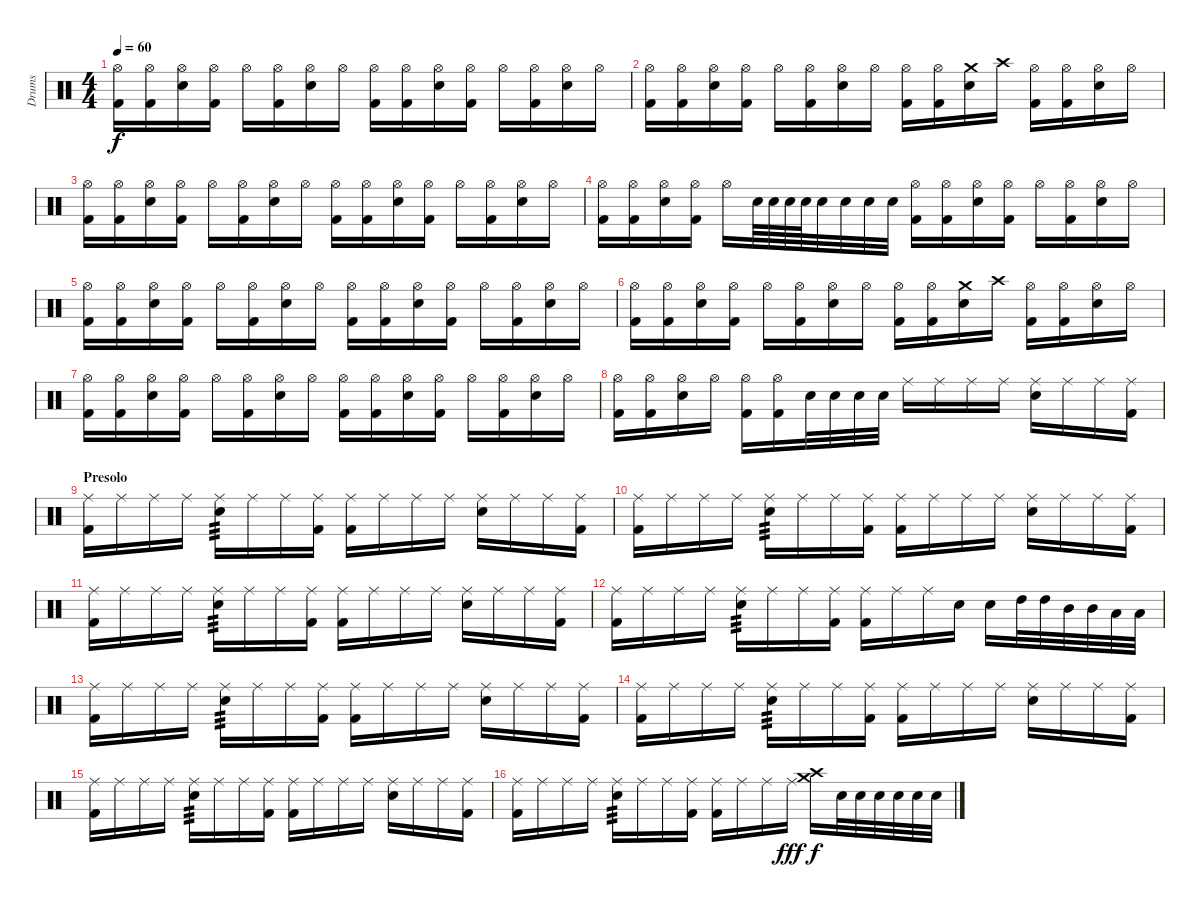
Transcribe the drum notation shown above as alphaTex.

\track ("Drums" "Drums") {instrument percussion}
\staff {score}
\articulation defaults
\ts (4 4)
\tempo 60
\clef neutral
\ks c
("Hi-Hat (open)" "Kick (hit) 2").16{dy f} ("Hi-Hat (open)" "Kick (hit) 2").16 ("Hi-Hat (open)" "Electric Snare (hit)").16 ("Hi-Hat (open)" "Kick (hit) 2").16 "Hi-Hat (open)".16 ("Hi-Hat (open)" "Kick (hit) 2").16 ("Hi-Hat (open)" "Electric Snare (hit)").16 "Hi-Hat (open)".16 ("Hi-Hat (open)" "Kick (hit) 2").16 ("Hi-Hat (open)" "Kick (hit) 2").16 ("Hi-Hat (open)" "Electric Snare (hit)").16 ("Hi-Hat (open)" "Kick (hit) 2").16 "Hi-Hat (open)".16 ("Hi-Hat (open)" "Kick (hit) 2").16 ("Hi-Hat (open)" "Electric Snare (hit)").16 "Hi-Hat (open)".16 |
("Hi-Hat (open)" "Kick (hit) 2").16 ("Hi-Hat (open)" "Kick (hit) 2").16 ("Hi-Hat (open)" "Electric Snare (hit)").16 ("Hi-Hat (open)" "Kick (hit) 2").16 "Hi-Hat (open)".16 ("Hi-Hat (open)" "Kick (hit) 2").16 ("Hi-Hat (open)" "Electric Snare (hit)").16 "Hi-Hat (open)".16 ("Hi-Hat (open)" "Kick (hit) 2").16 ("Hi-Hat (open)" "Kick (hit) 2").16 ("Crash medium (hit)" "Electric Snare (hit)").16 "Crash high (hit)".16 ("Hi-Hat (open)" "Kick (hit) 2").16 ("Hi-Hat (open)" "Kick (hit) 2").16 ("Hi-Hat (open)" "Electric Snare (hit)").16 "Hi-Hat (open)".16 |
("Hi-Hat (open)" "Kick (hit) 2").16 ("Hi-Hat (open)" "Kick (hit) 2").16 ("Hi-Hat (open)" "Electric Snare (hit)").16 ("Hi-Hat (open)" "Kick (hit) 2").16 "Hi-Hat (open)".16 ("Hi-Hat (open)" "Kick (hit) 2").16 ("Hi-Hat (open)" "Electric Snare (hit)").16 "Hi-Hat (open)".16 ("Hi-Hat (open)" "Kick (hit) 2").16 ("Hi-Hat (open)" "Kick (hit) 2").16 ("Hi-Hat (open)" "Electric Snare (hit)").16 ("Hi-Hat (open)" "Kick (hit) 2").16 "Hi-Hat (open)".16 ("Hi-Hat (open)" "Kick (hit) 2").16 ("Hi-Hat (open)" "Electric Snare (hit)").16 "Hi-Hat (open)".16 |
("Hi-Hat (open)" "Kick (hit) 2").16 ("Hi-Hat (open)" "Kick (hit) 2").16 ("Hi-Hat (open)" "Electric Snare (hit)").16 ("Hi-Hat (open)" "Kick (hit) 2").16 "Hi-Hat (open)".16 "Electric Snare (hit)".64 "Electric Snare (hit)".64 "Electric Snare (hit)".64 "Electric Snare (hit)".64 "Electric Snare (hit)".32 "Electric Snare (hit)".32 "Electric Snare (hit)".32 "Electric Snare (hit)".32 ("Hi-Hat (open)" "Kick (hit) 2").16 ("Hi-Hat (open)" "Kick (hit) 2").16 ("Hi-Hat (open)" "Electric Snare (hit)").16 ("Hi-Hat (open)" "Kick (hit) 2").16 "Hi-Hat (open)".16 ("Hi-Hat (open)" "Kick (hit) 2").16 ("Hi-Hat (open)" "Electric Snare (hit)").16 "Hi-Hat (open)".16 |
("Hi-Hat (open)" "Kick (hit) 2").16 ("Hi-Hat (open)" "Kick (hit) 2").16 ("Hi-Hat (open)" "Electric Snare (hit)").16 ("Hi-Hat (open)" "Kick (hit) 2").16 "Hi-Hat (open)".16 ("Hi-Hat (open)" "Kick (hit) 2").16 ("Hi-Hat (open)" "Electric Snare (hit)").16 "Hi-Hat (open)".16 ("Hi-Hat (open)" "Kick (hit) 2").16 ("Hi-Hat (open)" "Kick (hit) 2").16 ("Hi-Hat (open)" "Electric Snare (hit)").16 ("Hi-Hat (open)" "Kick (hit) 2").16 "Hi-Hat (open)".16 ("Hi-Hat (open)" "Kick (hit) 2").16 ("Hi-Hat (open)" "Electric Snare (hit)").16 "Hi-Hat (open)".16 |
("Hi-Hat (open)" "Kick (hit) 2").16 ("Hi-Hat (open)" "Kick (hit) 2").16 ("Hi-Hat (open)" "Electric Snare (hit)").16 ("Hi-Hat (open)" "Kick (hit) 2").16 "Hi-Hat (open)".16 ("Hi-Hat (open)" "Kick (hit) 2").16 ("Hi-Hat (open)" "Electric Snare (hit)").16 "Hi-Hat (open)".16 ("Hi-Hat (open)" "Kick (hit) 2").16 ("Hi-Hat (open)" "Kick (hit) 2").16 ("Crash medium (hit)" "Electric Snare (hit)").16 "Crash high (hit)".16 ("Hi-Hat (open)" "Kick (hit) 2").16 ("Hi-Hat (open)" "Kick (hit) 2").16 ("Hi-Hat (open)" "Electric Snare (hit)").16 "Hi-Hat (open)".16 |
("Hi-Hat (open)" "Kick (hit) 2").16 ("Hi-Hat (open)" "Kick (hit) 2").16 ("Hi-Hat (open)" "Electric Snare (hit)").16 ("Hi-Hat (open)" "Kick (hit) 2").16 "Hi-Hat (open)".16 ("Hi-Hat (open)" "Kick (hit) 2").16 ("Hi-Hat (open)" "Electric Snare (hit)").16 "Hi-Hat (open)".16 ("Hi-Hat (open)" "Kick (hit) 2").16 ("Hi-Hat (open)" "Kick (hit) 2").16 ("Hi-Hat (open)" "Electric Snare (hit)").16 ("Hi-Hat (open)" "Kick (hit) 2").16 "Hi-Hat (open)".16 ("Hi-Hat (open)" "Kick (hit) 2").16 ("Hi-Hat (open)" "Electric Snare (hit)").16 "Hi-Hat (open)".16 |
("Hi-Hat (open)" "Kick (hit) 2").16 ("Hi-Hat (open)" "Kick (hit) 2").16 ("Hi-Hat (open)" "Electric Snare (hit)").16 "Hi-Hat (open)".16 ("Hi-Hat (open)" "Kick (hit) 2").16 ("Hi-Hat (open)" "Kick (hit) 2").16 "Electric Snare (hit)".32 "Electric Snare (hit)".32 "Electric Snare (hit)".32 "Electric Snare (hit)".32 "Ride (middle)".16 "Ride (middle)".16 "Ride (middle)".16 "Ride (middle)".16 ("Ride (middle)" "Electric Snare (hit)").16 "Ride (middle)".16 "Ride (middle)".16 ("Ride (middle)" "Kick (hit) 2").16 |
\section ("" "Presolo ")
("Ride (middle)" "Kick (hit) 2").16 "Ride (middle)".16 "Ride (middle)".16 "Ride (middle)".16 ("Ride (middle)" "Electric Snare (hit)").16{tp 3} "Ride (middle)".16 "Ride (middle)".16 ("Ride (middle)" "Kick (hit) 2").16 ("Ride (middle)" "Kick (hit) 2").16 "Ride (middle)".16 "Ride (middle)".16 "Ride (middle)".16 ("Ride (middle)" "Electric Snare (hit)").16 "Ride (middle)".16 "Ride (middle)".16 ("Ride (middle)" "Kick (hit) 2").16 |
("Ride (middle)" "Kick (hit) 2").16 "Ride (middle)".16 "Ride (middle)".16 "Ride (middle)".16 ("Ride (middle)" "Electric Snare (hit)").16{tp 3} "Ride (middle)".16 "Ride (middle)".16 ("Ride (middle)" "Kick (hit) 2").16 ("Ride (middle)" "Kick (hit) 2").16 "Ride (middle)".16 "Ride (middle)".16 "Ride (middle)".16 ("Ride (middle)" "Electric Snare (hit)").16 "Ride (middle)".16 "Ride (middle)".16 ("Ride (middle)" "Kick (hit) 2").16 |
("Ride (middle)" "Kick (hit) 2").16 "Ride (middle)".16 "Ride (middle)".16 "Ride (middle)".16 ("Ride (middle)" "Electric Snare (hit)").16{tp 3} "Ride (middle)".16 "Ride (middle)".16 ("Ride (middle)" "Kick (hit) 2").16 ("Ride (middle)" "Kick (hit) 2").16 "Ride (middle)".16 "Ride (middle)".16 "Ride (middle)".16 ("Ride (middle)" "Electric Snare (hit)").16 "Ride (middle)".16 "Ride (middle)".16 ("Ride (middle)" "Kick (hit) 2").16 |
("Ride (middle)" "Kick (hit) 2").16 "Ride (middle)".16 "Ride (middle)".16 "Ride (middle)".16 ("Ride (middle)" "Electric Snare (hit)").16{tp 3} "Ride (middle)".16 "Ride (middle)".16 ("Ride (middle)" "Kick (hit) 2").16 ("Ride (middle)" "Kick (hit) 2").16 "Ride (middle)".16 "Ride (middle)".16 "Electric Snare (hit)".16 "Electric Snare (hit)".16 "High Tom (hit)".32 "High Tom (hit)".32 "Mid Tom (hit)".32 "Mid Tom (hit)".32 "Low Tom (hit)".32 "Low Tom (hit)".32 |
("Ride (middle)" "Kick (hit) 2").16 "Ride (middle)".16 "Ride (middle)".16 "Ride (middle)".16 ("Ride (middle)" "Electric Snare (hit)").16{tp 3} "Ride (middle)".16 "Ride (middle)".16 ("Ride (middle)" "Kick (hit) 2").16 ("Ride (middle)" "Kick (hit) 2").16 "Ride (middle)".16 "Ride (middle)".16 "Ride (middle)".16 ("Ride (middle)" "Electric Snare (hit)").16 "Ride (middle)".16 "Ride (middle)".16 ("Ride (middle)" "Kick (hit) 2").16 |
("Ride (middle)" "Kick (hit) 2").16 "Ride (middle)".16 "Ride (middle)".16 "Ride (middle)".16 ("Ride (middle)" "Electric Snare (hit)").16{tp 3} "Ride (middle)".16 "Ride (middle)".16 ("Ride (middle)" "Kick (hit) 2").16 ("Ride (middle)" "Kick (hit) 2").16 "Ride (middle)".16 "Ride (middle)".16 "Ride (middle)".16 ("Ride (middle)" "Electric Snare (hit)").16 "Ride (middle)".16 "Ride (middle)".16 ("Ride (middle)" "Kick (hit) 2").16 |
("Ride (middle)" "Kick (hit) 2").16 "Ride (middle)".16 "Ride (middle)".16 "Ride (middle)".16 ("Ride (middle)" "Electric Snare (hit)").16{tp 3} "Ride (middle)".16 "Ride (middle)".16 ("Ride (middle)" "Kick (hit) 2").16 ("Ride (middle)" "Kick (hit) 2").16 "Ride (middle)".16 "Ride (middle)".16 "Ride (middle)".16 ("Ride (middle)" "Electric Snare (hit)").16 "Ride (middle)".16 "Ride (middle)".16 ("Ride (middle)" "Kick (hit) 2").16 |
("Ride (middle)" "Kick (hit) 2").16 "Ride (middle)".16 "Ride (middle)".16 "Ride (middle)".16 ("Ride (middle)" "Electric Snare (hit)").16{tp 3} "Ride (middle)".16 "Ride (middle)".16 ("Ride (middle)" "Kick (hit) 2").16 ("Ride (middle)" "Kick (hit) 2").16 "Ride (middle)".16 "Ride (middle)".16 "Ride (middle)".16{dy fff} ("Crash medium (hit)" "Crash high (hit)").16{dy f} "Electric Snare (hit)".32 "Electric Snare (hit)".32 "Electric Snare (hit)".32 "Electric Snare (hit)".32 "Electric Snare (hit)".32 "Electric Snare (hit)".32
